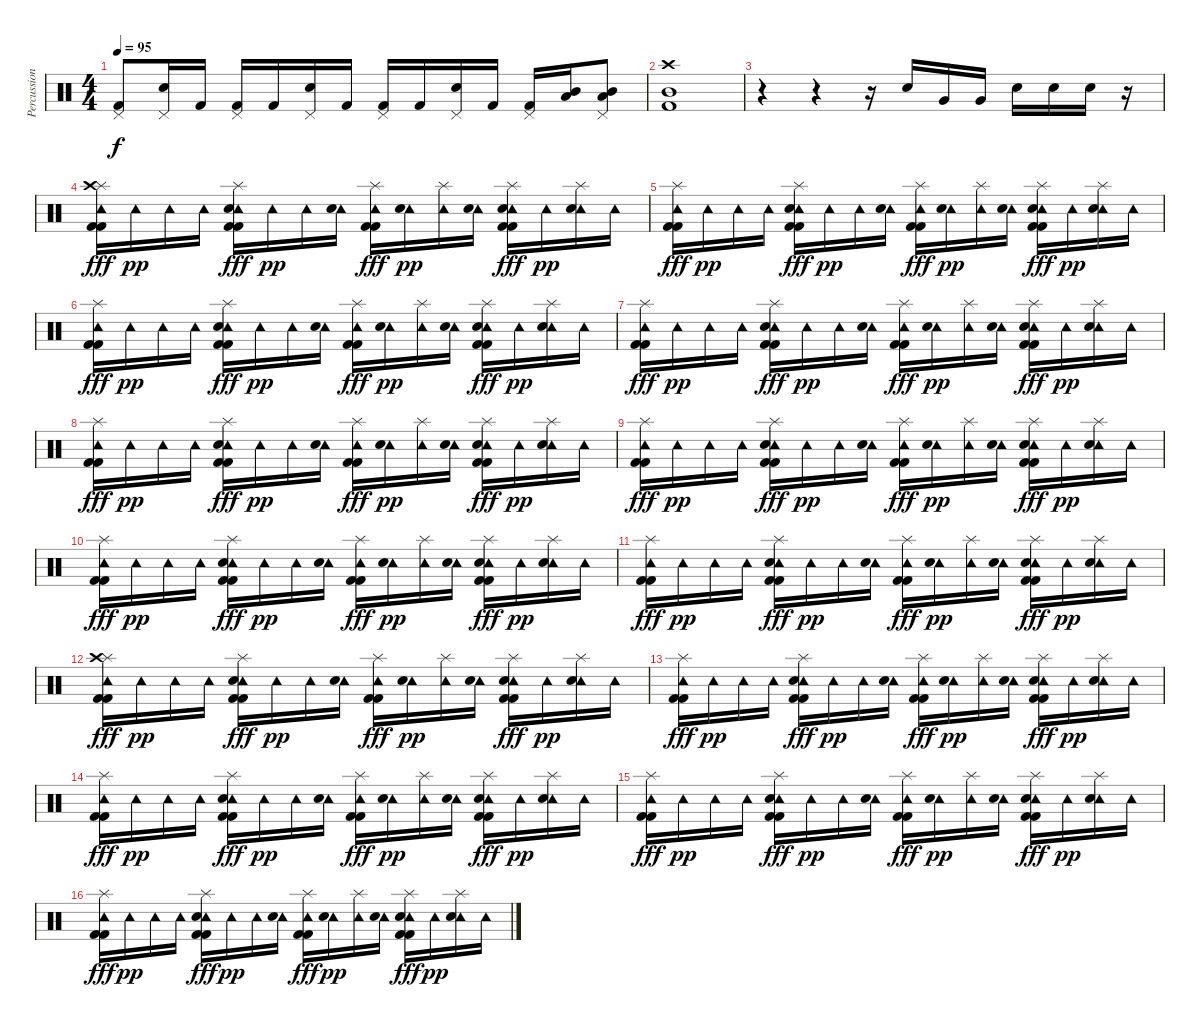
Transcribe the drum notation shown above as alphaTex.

\track ("Percussion" "Percussion") {instrument percussion}
\staff {score}
\articulation defaults
\ts (4 4)
\tempo 95
\clef neutral
\ks c
("Pedal Hi-Hat (hit)" "Kick (hit) 2").8{dy f} ("Pedal Hi-Hat (hit)" "Electric Snare (hit)").16 "Kick (hit) 2".16 ("Pedal Hi-Hat (hit)" "Kick (hit) 2").16 "Kick (hit) 2".16 ("Pedal Hi-Hat (hit)" "Electric Snare (hit)").16 "Kick (hit) 2".16 ("Pedal Hi-Hat (hit)" "Kick (hit) 2").16 "Kick (hit) 2".16 ("Pedal Hi-Hat (hit)" "Electric Snare (hit)").16 "Kick (hit) 2".16 ("Pedal Hi-Hat (hit)" "Kick (hit) 2").16 ("Mid Tom (hit)" "Low Tom (hit)").16 ("Pedal Hi-Hat (hit)" "Mid Tom (hit)" "Low Tom (hit)").8 |
("Crash high (hit)" "Mid Tom (hit)" "Kick (hit) 2").1 |
r.4 r.4 r.16 "Electric Snare (hit)".16 "Very Low Tom (hit)".16 "Very Low Tom (hit)".16 "Electric Snare (hit)".16 "Electric Snare (hit)".16 "Electric Snare (hit)".16 r.16 |
("Tambourine (hit)" "Splash (hit)" "Crash high (hit)" "Kick (hit) 2" "Kick (hit) 2").16{dy fff} "Tambourine (hit)".16{dy pp} "Tambourine (hit)".16 "Tambourine (hit)".16 ("Tambourine (hit)" "Splash (hit)" "Electric Snare (hit)" "Kick (hit) 2" "Kick (hit) 2").16{dy fff} "Tambourine (hit)".16{dy pp} "Tambourine (hit)".16 ("Tambourine (hit)" "Electric Snare (hit)").16 ("Tambourine (hit)" "Splash (hit)" "Kick (hit) 2" "Kick (hit) 2").16{dy fff} ("Tambourine (hit)" "Electric Snare (hit)").16{dy pp} ("Tambourine (hit)" "Splash (hit)").16 ("Tambourine (hit)" "Electric Snare (hit)").16 ("Tambourine (hit)" "Splash (hit)" "Electric Snare (hit)" "Kick (hit) 2" "Kick (hit) 2").16{dy fff} "Tambourine (hit)".16{dy pp} ("Tambourine (hit)" "Splash (hit)" "Electric Snare (hit)").16 "Tambourine (hit)".16 |
("Tambourine (hit)" "Splash (hit)" "Kick (hit) 2" "Kick (hit) 2").16{dy fff} "Tambourine (hit)".16{dy pp} "Tambourine (hit)".16 "Tambourine (hit)".16 ("Tambourine (hit)" "Splash (hit)" "Electric Snare (hit)" "Kick (hit) 2" "Kick (hit) 2").16{dy fff} "Tambourine (hit)".16{dy pp} "Tambourine (hit)".16 ("Tambourine (hit)" "Electric Snare (hit)").16 ("Tambourine (hit)" "Splash (hit)" "Kick (hit) 2" "Kick (hit) 2").16{dy fff} ("Tambourine (hit)" "Electric Snare (hit)").16{dy pp} ("Tambourine (hit)" "Splash (hit)").16 ("Tambourine (hit)" "Electric Snare (hit)").16 ("Tambourine (hit)" "Splash (hit)" "Electric Snare (hit)" "Kick (hit) 2" "Kick (hit) 2").16{dy fff} "Tambourine (hit)".16{dy pp} ("Tambourine (hit)" "Splash (hit)" "Electric Snare (hit)").16 "Tambourine (hit)".16 |
("Tambourine (hit)" "Splash (hit)" "Kick (hit) 2" "Kick (hit) 2").16{dy fff} "Tambourine (hit)".16{dy pp} "Tambourine (hit)".16 "Tambourine (hit)".16 ("Tambourine (hit)" "Splash (hit)" "Electric Snare (hit)" "Kick (hit) 2" "Kick (hit) 2").16{dy fff} "Tambourine (hit)".16{dy pp} "Tambourine (hit)".16 ("Tambourine (hit)" "Electric Snare (hit)").16 ("Tambourine (hit)" "Splash (hit)" "Kick (hit) 2" "Kick (hit) 2").16{dy fff} ("Tambourine (hit)" "Electric Snare (hit)").16{dy pp} ("Tambourine (hit)" "Splash (hit)").16 ("Tambourine (hit)" "Electric Snare (hit)").16 ("Tambourine (hit)" "Splash (hit)" "Electric Snare (hit)" "Kick (hit) 2" "Kick (hit) 2").16{dy fff} "Tambourine (hit)".16{dy pp} ("Tambourine (hit)" "Splash (hit)" "Electric Snare (hit)").16 "Tambourine (hit)".16 |
("Tambourine (hit)" "Splash (hit)" "Kick (hit) 2" "Kick (hit) 2").16{dy fff} "Tambourine (hit)".16{dy pp} "Tambourine (hit)".16 "Tambourine (hit)".16 ("Tambourine (hit)" "Splash (hit)" "Electric Snare (hit)" "Kick (hit) 2" "Kick (hit) 2").16{dy fff} "Tambourine (hit)".16{dy pp} "Tambourine (hit)".16 ("Tambourine (hit)" "Electric Snare (hit)").16 ("Tambourine (hit)" "Splash (hit)" "Kick (hit) 2" "Kick (hit) 2").16{dy fff} ("Tambourine (hit)" "Electric Snare (hit)").16{dy pp} ("Tambourine (hit)" "Splash (hit)").16 ("Tambourine (hit)" "Electric Snare (hit)").16 ("Tambourine (hit)" "Splash (hit)" "Electric Snare (hit)" "Kick (hit) 2" "Kick (hit) 2").16{dy fff} "Tambourine (hit)".16{dy pp} ("Tambourine (hit)" "Splash (hit)" "Electric Snare (hit)").16 "Tambourine (hit)".16 |
("Tambourine (hit)" "Splash (hit)" "Kick (hit) 2" "Kick (hit) 2").16{dy fff} "Tambourine (hit)".16{dy pp} "Tambourine (hit)".16 "Tambourine (hit)".16 ("Tambourine (hit)" "Splash (hit)" "Electric Snare (hit)" "Kick (hit) 2" "Kick (hit) 2").16{dy fff} "Tambourine (hit)".16{dy pp} "Tambourine (hit)".16 ("Tambourine (hit)" "Electric Snare (hit)").16 ("Tambourine (hit)" "Splash (hit)" "Kick (hit) 2" "Kick (hit) 2").16{dy fff} ("Tambourine (hit)" "Electric Snare (hit)").16{dy pp} ("Tambourine (hit)" "Splash (hit)").16 ("Tambourine (hit)" "Electric Snare (hit)").16 ("Tambourine (hit)" "Splash (hit)" "Electric Snare (hit)" "Kick (hit) 2" "Kick (hit) 2").16{dy fff} "Tambourine (hit)".16{dy pp} ("Tambourine (hit)" "Splash (hit)" "Electric Snare (hit)").16 "Tambourine (hit)".16 |
("Tambourine (hit)" "Splash (hit)" "Kick (hit) 2" "Kick (hit) 2").16{dy fff} "Tambourine (hit)".16{dy pp} "Tambourine (hit)".16 "Tambourine (hit)".16 ("Tambourine (hit)" "Splash (hit)" "Electric Snare (hit)" "Kick (hit) 2" "Kick (hit) 2").16{dy fff} "Tambourine (hit)".16{dy pp} "Tambourine (hit)".16 ("Tambourine (hit)" "Electric Snare (hit)").16 ("Tambourine (hit)" "Splash (hit)" "Kick (hit) 2" "Kick (hit) 2").16{dy fff} ("Tambourine (hit)" "Electric Snare (hit)").16{dy pp} ("Tambourine (hit)" "Splash (hit)").16 ("Tambourine (hit)" "Electric Snare (hit)").16 ("Tambourine (hit)" "Splash (hit)" "Electric Snare (hit)" "Kick (hit) 2" "Kick (hit) 2").16{dy fff} "Tambourine (hit)".16{dy pp} ("Tambourine (hit)" "Splash (hit)" "Electric Snare (hit)").16 "Tambourine (hit)".16 |
("Tambourine (hit)" "Splash (hit)" "Kick (hit) 2" "Kick (hit) 2").16{dy fff} "Tambourine (hit)".16{dy pp} "Tambourine (hit)".16 "Tambourine (hit)".16 ("Tambourine (hit)" "Splash (hit)" "Electric Snare (hit)" "Kick (hit) 2" "Kick (hit) 2").16{dy fff} "Tambourine (hit)".16{dy pp} "Tambourine (hit)".16 ("Tambourine (hit)" "Electric Snare (hit)").16 ("Tambourine (hit)" "Splash (hit)" "Kick (hit) 2" "Kick (hit) 2").16{dy fff} ("Tambourine (hit)" "Electric Snare (hit)").16{dy pp} ("Tambourine (hit)" "Splash (hit)").16 ("Tambourine (hit)" "Electric Snare (hit)").16 ("Tambourine (hit)" "Splash (hit)" "Electric Snare (hit)" "Kick (hit) 2" "Kick (hit) 2").16{dy fff} "Tambourine (hit)".16{dy pp} ("Tambourine (hit)" "Splash (hit)" "Electric Snare (hit)").16 "Tambourine (hit)".16 |
("Tambourine (hit)" "Splash (hit)" "Kick (hit) 2" "Kick (hit) 2").16{dy fff} "Tambourine (hit)".16{dy pp} "Tambourine (hit)".16 "Tambourine (hit)".16 ("Tambourine (hit)" "Splash (hit)" "Electric Snare (hit)" "Kick (hit) 2" "Kick (hit) 2").16{dy fff} "Tambourine (hit)".16{dy pp} "Tambourine (hit)".16 ("Tambourine (hit)" "Electric Snare (hit)").16 ("Tambourine (hit)" "Splash (hit)" "Kick (hit) 2" "Kick (hit) 2").16{dy fff} ("Tambourine (hit)" "Electric Snare (hit)").16{dy pp} ("Tambourine (hit)" "Splash (hit)").16 ("Tambourine (hit)" "Electric Snare (hit)").16 ("Tambourine (hit)" "Splash (hit)" "Electric Snare (hit)" "Kick (hit) 2" "Kick (hit) 2").16{dy fff} "Tambourine (hit)".16{dy pp} ("Tambourine (hit)" "Splash (hit)" "Electric Snare (hit)").16 "Tambourine (hit)".16 |
("Tambourine (hit)" "Splash (hit)" "Crash high (hit)" "Kick (hit) 2" "Kick (hit) 2").16{dy fff} "Tambourine (hit)".16{dy pp} "Tambourine (hit)".16 "Tambourine (hit)".16 ("Tambourine (hit)" "Splash (hit)" "Electric Snare (hit)" "Kick (hit) 2" "Kick (hit) 2").16{dy fff} "Tambourine (hit)".16{dy pp} "Tambourine (hit)".16 ("Tambourine (hit)" "Electric Snare (hit)").16 ("Tambourine (hit)" "Splash (hit)" "Kick (hit) 2" "Kick (hit) 2").16{dy fff} ("Tambourine (hit)" "Electric Snare (hit)").16{dy pp} ("Tambourine (hit)" "Splash (hit)").16 ("Tambourine (hit)" "Electric Snare (hit)").16 ("Tambourine (hit)" "Splash (hit)" "Electric Snare (hit)" "Kick (hit) 2" "Kick (hit) 2").16{dy fff} "Tambourine (hit)".16{dy pp} ("Tambourine (hit)" "Splash (hit)" "Electric Snare (hit)").16 "Tambourine (hit)".16 |
("Tambourine (hit)" "Splash (hit)" "Kick (hit) 2" "Kick (hit) 2").16{dy fff} "Tambourine (hit)".16{dy pp} "Tambourine (hit)".16 "Tambourine (hit)".16 ("Tambourine (hit)" "Splash (hit)" "Electric Snare (hit)" "Kick (hit) 2" "Kick (hit) 2").16{dy fff} "Tambourine (hit)".16{dy pp} "Tambourine (hit)".16 ("Tambourine (hit)" "Electric Snare (hit)").16 ("Tambourine (hit)" "Splash (hit)" "Kick (hit) 2" "Kick (hit) 2").16{dy fff} ("Tambourine (hit)" "Electric Snare (hit)").16{dy pp} ("Tambourine (hit)" "Splash (hit)").16 ("Tambourine (hit)" "Electric Snare (hit)").16 ("Tambourine (hit)" "Splash (hit)" "Electric Snare (hit)" "Kick (hit) 2" "Kick (hit) 2").16{dy fff} "Tambourine (hit)".16{dy pp} ("Tambourine (hit)" "Splash (hit)" "Electric Snare (hit)").16 "Tambourine (hit)".16 |
("Tambourine (hit)" "Splash (hit)" "Kick (hit) 2" "Kick (hit) 2").16{dy fff} "Tambourine (hit)".16{dy pp} "Tambourine (hit)".16 "Tambourine (hit)".16 ("Tambourine (hit)" "Splash (hit)" "Electric Snare (hit)" "Kick (hit) 2" "Kick (hit) 2").16{dy fff} "Tambourine (hit)".16{dy pp} "Tambourine (hit)".16 ("Tambourine (hit)" "Electric Snare (hit)").16 ("Tambourine (hit)" "Splash (hit)" "Kick (hit) 2" "Kick (hit) 2").16{dy fff} ("Tambourine (hit)" "Electric Snare (hit)").16{dy pp} ("Tambourine (hit)" "Splash (hit)").16 ("Tambourine (hit)" "Electric Snare (hit)").16 ("Tambourine (hit)" "Splash (hit)" "Electric Snare (hit)" "Kick (hit) 2" "Kick (hit) 2").16{dy fff} "Tambourine (hit)".16{dy pp} ("Tambourine (hit)" "Splash (hit)" "Electric Snare (hit)").16 "Tambourine (hit)".16 |
("Tambourine (hit)" "Splash (hit)" "Kick (hit) 2" "Kick (hit) 2").16{dy fff} "Tambourine (hit)".16{dy pp} "Tambourine (hit)".16 "Tambourine (hit)".16 ("Tambourine (hit)" "Splash (hit)" "Electric Snare (hit)" "Kick (hit) 2" "Kick (hit) 2").16{dy fff} "Tambourine (hit)".16{dy pp} "Tambourine (hit)".16 ("Tambourine (hit)" "Electric Snare (hit)").16 ("Tambourine (hit)" "Splash (hit)" "Kick (hit) 2" "Kick (hit) 2").16{dy fff} ("Tambourine (hit)" "Electric Snare (hit)").16{dy pp} ("Tambourine (hit)" "Splash (hit)").16 ("Tambourine (hit)" "Electric Snare (hit)").16 ("Tambourine (hit)" "Splash (hit)" "Electric Snare (hit)" "Kick (hit) 2" "Kick (hit) 2").16{dy fff} "Tambourine (hit)".16{dy pp} ("Tambourine (hit)" "Splash (hit)" "Electric Snare (hit)").16 "Tambourine (hit)".16 |
("Tambourine (hit)" "Splash (hit)" "Kick (hit) 2" "Kick (hit) 2").16{dy fff} "Tambourine (hit)".16{dy pp} "Tambourine (hit)".16 "Tambourine (hit)".16 ("Tambourine (hit)" "Splash (hit)" "Electric Snare (hit)" "Kick (hit) 2" "Kick (hit) 2").16{dy fff} "Tambourine (hit)".16{dy pp} "Tambourine (hit)".16 ("Tambourine (hit)" "Electric Snare (hit)").16 ("Tambourine (hit)" "Splash (hit)" "Kick (hit) 2" "Kick (hit) 2").16{dy fff} ("Tambourine (hit)" "Electric Snare (hit)").16{dy pp} ("Tambourine (hit)" "Splash (hit)").16 ("Tambourine (hit)" "Electric Snare (hit)").16 ("Tambourine (hit)" "Splash (hit)" "Electric Snare (hit)" "Kick (hit) 2" "Kick (hit) 2").16{dy fff} "Tambourine (hit)".16{dy pp} ("Tambourine (hit)" "Splash (hit)" "Electric Snare (hit)").16 "Tambourine (hit)".16
